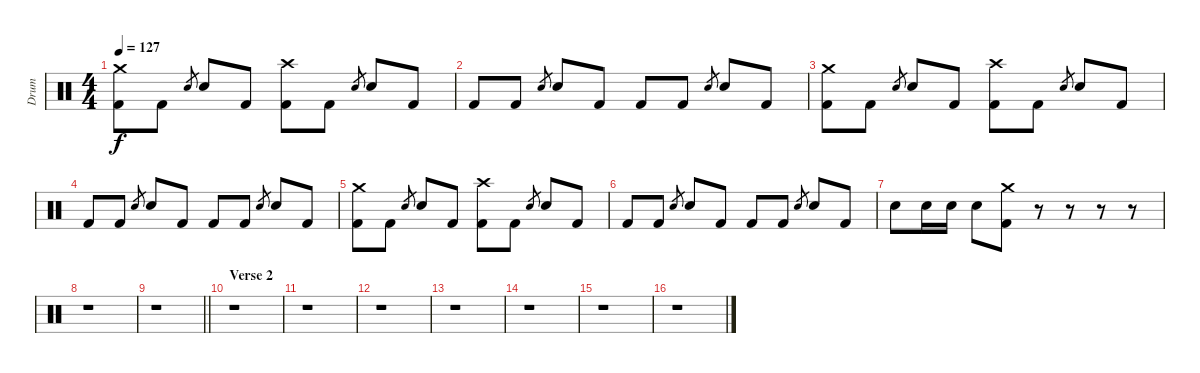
\track ("Drum" "Drum") {instrument percussion}
\staff {score}
\articulation defaults
\ts (4 4)
\tempo 127
\clef neutral
\ks c
("Crash medium (hit)" "Kick (hit) 2").8{dy f} "Kick (hit) 2".8 "Electric Snare (hit)".8{gr} "Electric Snare (hit)".8 "Kick (hit) 2".8 ("Crash high (hit)" "Kick (hit) 2").8 "Kick (hit) 2".8 "Electric Snare (hit)".8{gr} "Electric Snare (hit)".8 "Kick (hit) 2".8 |
"Kick (hit) 2".8 "Kick (hit) 2".8 "Electric Snare (hit)".8{gr} "Electric Snare (hit)".8 "Kick (hit) 2".8 "Kick (hit) 2".8 "Kick (hit) 2".8 "Electric Snare (hit)".8{gr} "Electric Snare (hit)".8 "Kick (hit) 2".8 |
("Crash medium (hit)" "Kick (hit) 2").8 "Kick (hit) 2".8 "Electric Snare (hit)".8{gr} "Electric Snare (hit)".8 "Kick (hit) 2".8 ("Crash high (hit)" "Kick (hit) 2").8 "Kick (hit) 2".8 "Electric Snare (hit)".8{gr} "Electric Snare (hit)".8 "Kick (hit) 2".8 |
"Kick (hit) 2".8 "Kick (hit) 2".8 "Electric Snare (hit)".8{gr} "Electric Snare (hit)".8 "Kick (hit) 2".8 "Kick (hit) 2".8 "Kick (hit) 2".8 "Electric Snare (hit)".8{gr} "Electric Snare (hit)".8 "Kick (hit) 2".8 |
("Crash medium (hit)" "Kick (hit) 2").8 "Kick (hit) 2".8 "Electric Snare (hit)".8{gr} "Electric Snare (hit)".8 "Kick (hit) 2".8 ("Crash high (hit)" "Kick (hit) 2").8 "Kick (hit) 2".8 "Electric Snare (hit)".8{gr} "Electric Snare (hit)".8 "Kick (hit) 2".8 |
"Kick (hit) 2".8 "Kick (hit) 2".8 "Electric Snare (hit)".8{gr} "Electric Snare (hit)".8 "Kick (hit) 2".8 "Kick (hit) 2".8 "Kick (hit) 2".8 "Electric Snare (hit)".8{gr} "Electric Snare (hit)".8 "Kick (hit) 2".8 |
"Electric Snare (hit)".8 "Electric Snare (hit)".16 "Electric Snare (hit)".16 "Electric Snare (hit)".8 ("Crash medium (hit)" "Kick (hit) 2").8 r.8 r.8 r.8 r.8 |
r.1 |
\barLineRight lightlight
r.1 |
\section ("" "Verse 2")
r.1 |
r.1 |
r.1 |
r.1 |
r.1 |
r.1 |
r.1
